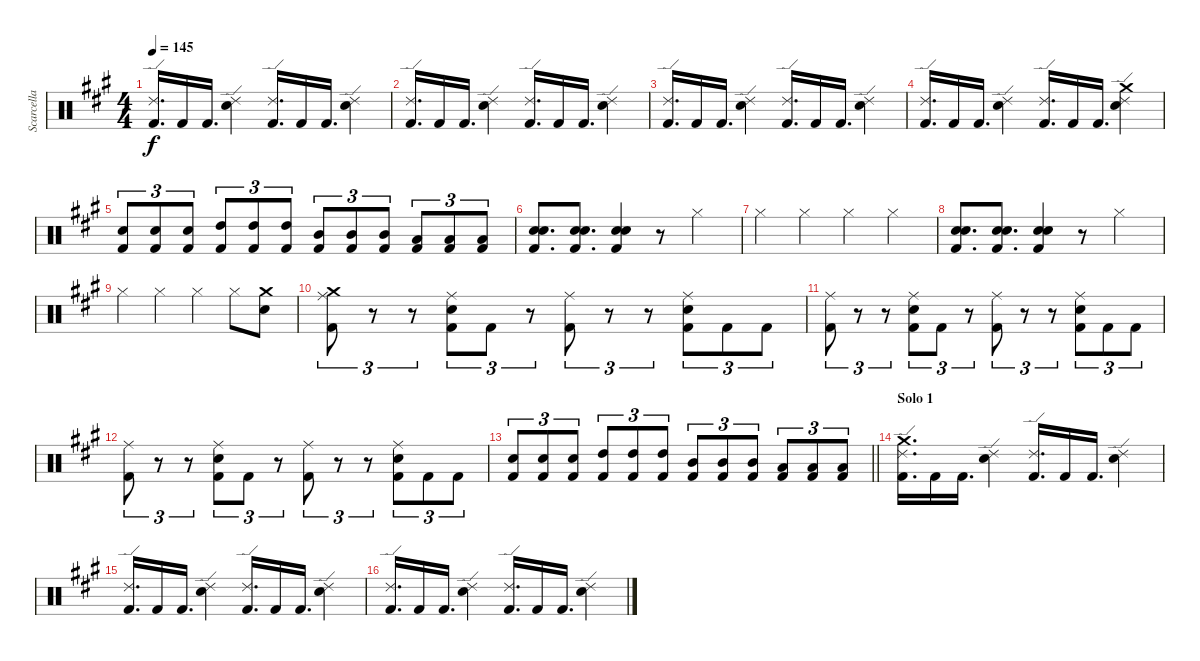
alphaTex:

\track ("Scarcella" "Scarcella") {instrument percussion}
\staff {score}
\articulation defaults
\ts (4 4)
\tempo 145
\clef neutral
\ks f#minor
("Ride (edge) 2" "Kick (hit) 2").16{d dy f} "Kick (hit) 2".16 "Kick (hit) 2".16{d} ("Ride (edge) 2" "Snare (hit) 2").4 ("Ride (edge) 2" "Kick (hit) 2").16{d} "Kick (hit) 2".16 "Kick (hit) 2".16{d} ("Ride (edge) 2" "Snare (hit) 2").4 |
("Ride (edge) 2" "Kick (hit) 2").16{d} "Kick (hit) 2".16 "Kick (hit) 2".16{d} ("Ride (edge) 2" "Snare (hit) 2").4 ("Ride (edge) 2" "Kick (hit) 2").16{d} "Kick (hit) 2".16 "Kick (hit) 2".16{d} ("Ride (edge) 2" "Snare (hit) 2").4 |
("Ride (edge) 2" "Kick (hit) 2").16{d} "Kick (hit) 2".16 "Kick (hit) 2".16{d} ("Ride (edge) 2" "Snare (hit) 2").4 ("Ride (edge) 2" "Kick (hit) 2").16{d} "Kick (hit) 2".16 "Kick (hit) 2".16{d} ("Ride (edge) 2" "Snare (hit) 2").4 |
("Ride (edge) 2" "Kick (hit) 2").16{d} "Kick (hit) 2".16 "Kick (hit) 2".16{d} ("Ride (edge) 2" "Snare (hit) 2").4 ("Ride (edge) 2" "Kick (hit) 2").16{d} "Kick (hit) 2".16 "Kick (hit) 2".16{d} ("Ride (edge) 2" "Snare (hit) 2" "Crash medium (hit)").4 |
("Snare (hit) 2" "Kick (hit) 2").8{tu (3 2)} ("Snare (hit) 2" "Kick (hit) 2").8{tu (3 2)} ("Snare (hit) 2" "Kick (hit) 2").8{tu (3 2)} ("High Tom (hit)" "Kick (hit) 2").8{tu (3 2)} ("High Tom (hit)" "Kick (hit) 2").8{tu (3 2)} ("High Tom (hit)" "Kick (hit) 2").8{tu (3 2)} ("Mid Tom (hit)" "Kick (hit) 2").8{tu (3 2)} ("Mid Tom (hit)" "Kick (hit) 2").8{tu (3 2)} ("Mid Tom (hit)" "Kick (hit) 2").8{tu (3 2)} ("Low Tom (hit)" "Kick (hit) 2").8{tu (3 2)} ("Low Tom (hit)" "Kick (hit) 2").8{tu (3 2)} ("Low Tom (hit)" "Kick (hit) 2").8{tu (3 2)} |
("Snare (hit) 2" "Kick (hit) 2" "Snare (hit) 2").8{d} ("Snare (hit) 2" "Kick (hit) 2" "Snare (hit) 2").8{d} ("Snare (hit) 2" "Kick (hit) 2" "Snare (hit) 2").4 r.8 "Hi-Hat (closed)".4 |
"Hi-Hat (closed)".4 "Hi-Hat (closed)".4 "Hi-Hat (closed)".4 "Hi-Hat (closed)".4 |
("Snare (hit) 2" "Kick (hit) 2" "Snare (hit) 2").8{d} ("Snare (hit) 2" "Kick (hit) 2" "Snare (hit) 2").8{d} ("Snare (hit) 2" "Kick (hit) 2" "Snare (hit) 2").4 r.8 "Hi-Hat (closed)".4 |
"Hi-Hat (closed)".4 "Hi-Hat (closed)".4 "Hi-Hat (closed)".4 "Hi-Hat (closed)".8 ("Snare (hit) 2" "Crash medium (hit)").8 |
("Ride (middle)" "Crash medium (hit)" "Kick (hit) 2").8{tu (3 2)} r.8{tu (3 2)} r.8{tu (3 2)} ("Ride (middle)" "Snare (hit) 2" "Kick (hit) 2").8{tu (3 2)} "Kick (hit) 2".8{tu (3 2)} r.8{tu (3 2)} ("Ride (middle)" "Kick (hit) 2").8{tu (3 2)} r.8{tu (3 2)} r.8{tu (3 2)} ("Ride (middle)" "Snare (hit) 2" "Kick (hit) 2").8{tu (3 2)} "Kick (hit) 2".8{tu (3 2)} "Kick (hit) 2".8{tu (3 2)} |
("Ride (middle)" "Kick (hit) 2").8{tu (3 2)} r.8{tu (3 2)} r.8{tu (3 2)} ("Ride (middle)" "Snare (hit) 2" "Kick (hit) 2").8{tu (3 2)} "Kick (hit) 2".8{tu (3 2)} r.8{tu (3 2)} ("Ride (middle)" "Kick (hit) 2").8{tu (3 2)} r.8{tu (3 2)} r.8{tu (3 2)} ("Ride (middle)" "Snare (hit) 2" "Kick (hit) 2").8{tu (3 2)} "Kick (hit) 2".8{tu (3 2)} "Kick (hit) 2".8{tu (3 2)} |
("Ride (middle)" "Kick (hit) 2").8{tu (3 2)} r.8{tu (3 2)} r.8{tu (3 2)} ("Ride (middle)" "Snare (hit) 2" "Kick (hit) 2").8{tu (3 2)} "Kick (hit) 2".8{tu (3 2)} r.8{tu (3 2)} ("Ride (middle)" "Kick (hit) 2").8{tu (3 2)} r.8{tu (3 2)} r.8{tu (3 2)} ("Ride (middle)" "Snare (hit) 2" "Kick (hit) 2").8{tu (3 2)} "Kick (hit) 2".8{tu (3 2)} "Kick (hit) 2".8{tu (3 2)} |
\barLineRight lightlight
("Snare (hit) 2" "Kick (hit) 2").8{tu (3 2)} ("Snare (hit) 2" "Kick (hit) 2").8{tu (3 2)} ("Snare (hit) 2" "Kick (hit) 2").8{tu (3 2)} ("High Tom (hit)" "Kick (hit) 2").8{tu (3 2)} ("High Tom (hit)" "Kick (hit) 2").8{tu (3 2)} ("High Tom (hit)" "Kick (hit) 2").8{tu (3 2)} ("Mid Tom (hit)" "Kick (hit) 2").8{tu (3 2)} ("Mid Tom (hit)" "Kick (hit) 2").8{tu (3 2)} ("Mid Tom (hit)" "Kick (hit) 2").8{tu (3 2)} ("Low Tom (hit)" "Kick (hit) 2").8{tu (3 2)} ("Low Tom (hit)" "Kick (hit) 2").8{tu (3 2)} ("Low Tom (hit)" "Kick (hit) 2").8{tu (3 2)} |
\section ("" "Solo 1")
("Crash medium (hit)" "Ride (edge) 2" "Kick (hit) 2").16{d} "Kick (hit) 2".16 "Kick (hit) 2".16{d} ("Ride (edge) 2" "Snare (hit) 2").4 ("Ride (edge) 2" "Kick (hit) 2").16{d} "Kick (hit) 2".16 "Kick (hit) 2".16{d} ("Ride (edge) 2" "Snare (hit) 2").4 |
("Ride (edge) 2" "Kick (hit) 2").16{d} "Kick (hit) 2".16 "Kick (hit) 2".16{d} ("Ride (edge) 2" "Snare (hit) 2").4 ("Ride (edge) 2" "Kick (hit) 2").16{d} "Kick (hit) 2".16 "Kick (hit) 2".16{d} ("Ride (edge) 2" "Snare (hit) 2").4 |
("Ride (edge) 2" "Kick (hit) 2").16{d} "Kick (hit) 2".16 "Kick (hit) 2".16{d} ("Ride (edge) 2" "Snare (hit) 2").4 ("Ride (edge) 2" "Kick (hit) 2").16{d} "Kick (hit) 2".16 "Kick (hit) 2".16{d} ("Ride (edge) 2" "Snare (hit) 2").4
